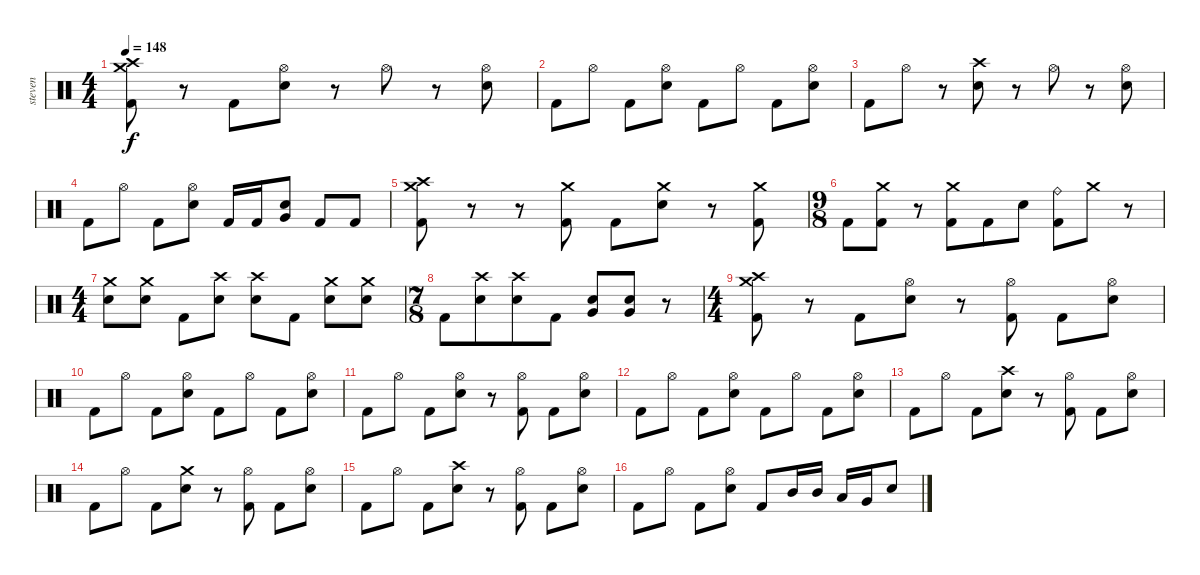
\track ("steven" "steven") {instrument percussion}
\staff {score}
\articulation defaults
\ts (4 4)
\tempo 148
\clef neutral
\ks c
("Crash medium (hit)" "Crash high (hit)" "Kick (hit) 2").8{dy f} r.8 "Kick (hit) 2".8 ("Hi-Hat (open)" "Electric Snare (hit)").8 r.8 "Hi-Hat (open)".8 r.8 ("Hi-Hat (open)" "Electric Snare (hit)").8 |
"Kick (hit) 2".8 "Hi-Hat (open)".8 "Kick (hit) 2".8 ("Hi-Hat (open)" "Electric Snare (hit)").8 "Kick (hit) 2".8 "Hi-Hat (open)".8 "Kick (hit) 2".8 ("Hi-Hat (open)" "Electric Snare (hit)").8 |
"Kick (hit) 2".8 "Hi-Hat (open)".8 r.8 ("Crash high (hit)" "Electric Snare (hit)").8 r.8 "Hi-Hat (open)".8 r.8 ("Hi-Hat (open)" "Electric Snare (hit)").8 |
"Kick (hit) 2".8 "Hi-Hat (open)".8 "Kick (hit) 2".8 ("Hi-Hat (open)" "Electric Snare (hit)").8 "Kick (hit) 2".16 "Kick (hit) 2".16 ("Electric Snare (hit)" "Very Low Tom (hit)").8 "Kick (hit) 2".8 "Kick (hit) 2".8 |
("Crash medium (hit)" "Crash high (hit)" "Kick (hit) 2").8 r.8 r.8 ("Crash medium (hit)" "Kick (hit) 2").8 "Kick (hit) 2".8 ("Crash medium (hit)" "Electric Snare (hit)").8 r.8 ("Crash medium (hit)" "Kick (hit) 2").8 |
\ts (9 8)
"Kick (hit) 2".8 ("Crash medium (hit)" "Kick (hit) 2").8 r.8 ("Crash medium (hit)" "Kick (hit) 2").8 "Kick (hit) 2".8 "Electric Snare (hit)".8 ("Ride (bell)" "Kick (hit) 2").8 "Crash medium (hit)".8 r.8 |
\ts (4 4)
("Crash medium (hit)" "Electric Snare (hit)").8 ("Crash medium (hit)" "Electric Snare (hit)").8 "Kick (hit) 2".8 ("Crash high (hit)" "Electric Snare (hit)").8 ("Crash high (hit)" "Electric Snare (hit)").8 "Kick (hit) 2".8 ("Crash medium (hit)" "Electric Snare (hit)").8 ("Crash medium (hit)" "Electric Snare (hit)").8 |
\ts (7 8)
"Kick (hit) 2".8 ("Crash high (hit)" "Electric Snare (hit)").8 ("Crash high (hit)" "Electric Snare (hit)").8 "Kick (hit) 2".8 ("Electric Snare (hit)" "Very Low Tom (hit)").8 ("Electric Snare (hit)" "Very Low Tom (hit)").8 r.8 |
\ts (4 4)
("Crash medium (hit)" "Crash high (hit)" "Kick (hit) 2").8 r.8 "Kick (hit) 2".8 ("Hi-Hat (open)" "Electric Snare (hit)").8 r.8 ("Hi-Hat (open)" "Kick (hit) 2").8 "Kick (hit) 2".8 ("Hi-Hat (open)" "Electric Snare (hit)").8 |
"Kick (hit) 2".8 "Hi-Hat (open)".8 "Kick (hit) 2".8 ("Hi-Hat (open)" "Electric Snare (hit)").8 "Kick (hit) 2".8 "Hi-Hat (open)".8 "Kick (hit) 2".8 ("Hi-Hat (open)" "Electric Snare (hit)").8 |
"Kick (hit) 2".8 "Hi-Hat (open)".8 "Kick (hit) 2".8 ("Hi-Hat (open)" "Electric Snare (hit)").8 r.8 ("Hi-Hat (open)" "Kick (hit) 2").8 "Kick (hit) 2".8 ("Hi-Hat (open)" "Electric Snare (hit)").8 |
"Kick (hit) 2".8 "Hi-Hat (open)".8 "Kick (hit) 2".8 ("Hi-Hat (open)" "Electric Snare (hit)").8 "Kick (hit) 2".8 "Hi-Hat (open)".8 "Kick (hit) 2".8 ("Hi-Hat (open)" "Electric Snare (hit)").8 |
"Kick (hit) 2".8 "Hi-Hat (open)".8 "Kick (hit) 2".8 ("Crash high (hit)" "Electric Snare (hit)").8 r.8 ("Hi-Hat (open)" "Kick (hit) 2").8 "Kick (hit) 2".8 ("Hi-Hat (open)" "Electric Snare (hit)").8 |
"Kick (hit) 2".8 "Hi-Hat (open)".8 "Kick (hit) 2".8 ("Crash medium (hit)" "Electric Snare (hit)").8 r.8 ("Hi-Hat (open)" "Kick (hit) 2").8 "Kick (hit) 2".8 ("Hi-Hat (open)" "Electric Snare (hit)").8 |
"Kick (hit) 2".8 "Hi-Hat (open)".8 "Kick (hit) 2".8 ("Crash high (hit)" "Electric Snare (hit)").8 r.8 ("Hi-Hat (open)" "Kick (hit) 2").8 "Kick (hit) 2".8 ("Hi-Hat (open)" "Electric Snare (hit)").8 |
"Kick (hit) 2".8 "Hi-Hat (open)".8 "Kick (hit) 2".8 ("Hi-Hat (open)" "Electric Snare (hit)").8 "Kick (hit) 2".8 "Mid Tom (hit)".16 "Mid Tom (hit)".16 "Low Tom (hit)".16 "Very Low Tom (hit)".16 "Electric Snare (hit)".8
